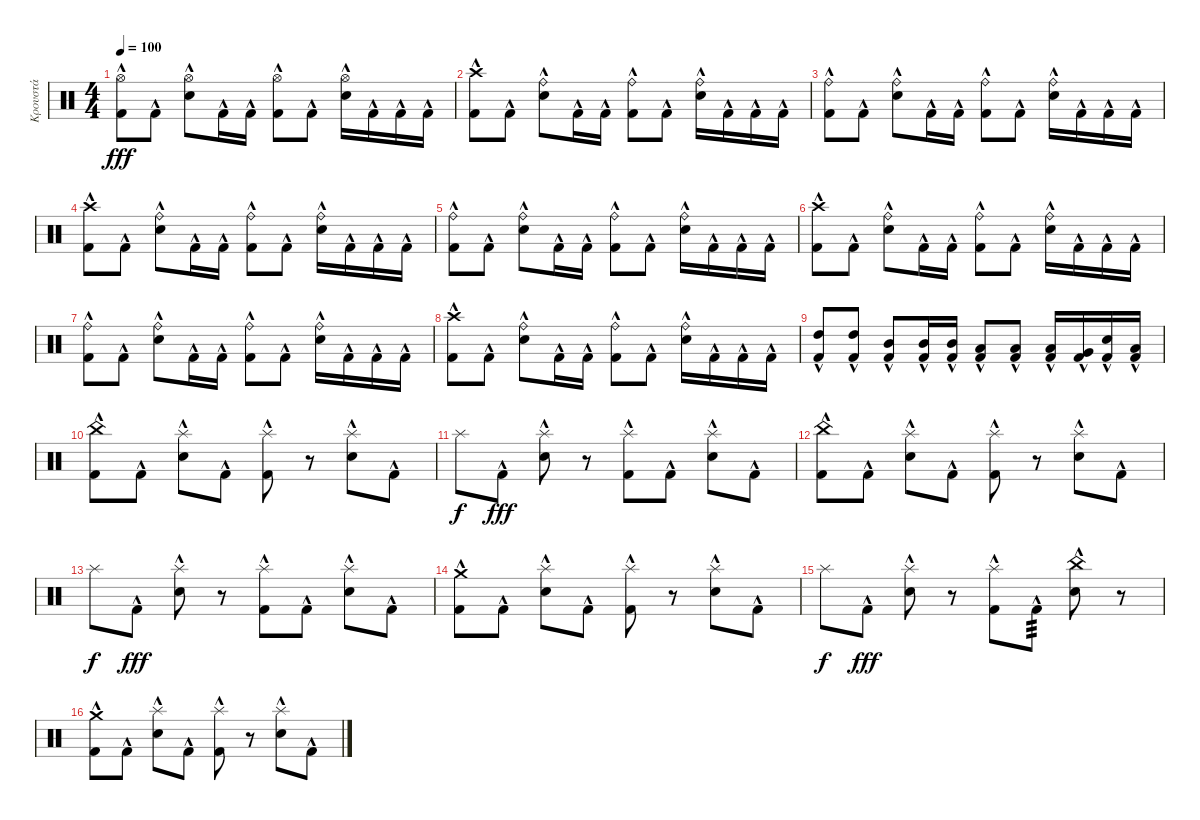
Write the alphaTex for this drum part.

\track ("Κρουστά" "Κρουστά") {instrument percussion}
\staff {score}
\articulation defaults
\ts (4 4)
\tempo 100
\clef neutral
\ks c
("Kick (hit) 2"{hac} "Hi-Hat (open)").8{dy fff} "Kick (hit) 2"{hac}.8 ("Electric Snare (hit)"{hac} "Hi-Hat (open)").8 "Kick (hit) 2"{hac}.16 "Kick (hit) 2"{hac}.16 ("Kick (hit) 2"{hac} "Hi-Hat (open)").8 "Kick (hit) 2"{hac}.8 ("Electric Snare (hit)"{hac} "Hi-Hat (open)").16 "Kick (hit) 2"{hac}.16 "Kick (hit) 2"{hac}.16 "Kick (hit) 2"{hac}.16 |
("Kick (hit) 2"{hac} "Crash high (hit)").8 "Kick (hit) 2"{hac}.8 ("Electric Snare (hit)"{hac} "Ride (bell)").8 "Kick (hit) 2"{hac}.16 "Kick (hit) 2"{hac}.16 ("Kick (hit) 2"{hac} "Ride (bell)").8 "Kick (hit) 2"{hac}.8 ("Electric Snare (hit)"{hac} "Ride (bell)").16 "Kick (hit) 2"{hac}.16 "Kick (hit) 2"{hac}.16 "Kick (hit) 2"{hac}.16 |
("Kick (hit) 2"{hac} "Ride (bell)").8 "Kick (hit) 2"{hac}.8 ("Electric Snare (hit)"{hac} "Ride (bell)").8 "Kick (hit) 2"{hac}.16 "Kick (hit) 2"{hac}.16 ("Kick (hit) 2"{hac} "Ride (bell)").8 "Kick (hit) 2"{hac}.8 ("Electric Snare (hit)"{hac} "Ride (bell)").16 "Kick (hit) 2"{hac}.16 "Kick (hit) 2"{hac}.16 "Kick (hit) 2"{hac}.16 |
("Kick (hit) 2"{hac} "Crash high (hit)").8 "Kick (hit) 2"{hac}.8 ("Electric Snare (hit)"{hac} "Ride (bell)").8 "Kick (hit) 2"{hac}.16 "Kick (hit) 2"{hac}.16 ("Kick (hit) 2"{hac} "Ride (bell)").8 "Kick (hit) 2"{hac}.8 ("Electric Snare (hit)"{hac} "Ride (bell)").16 "Kick (hit) 2"{hac}.16 "Kick (hit) 2"{hac}.16 "Kick (hit) 2"{hac}.16 |
("Kick (hit) 2"{hac} "Ride (bell)").8 "Kick (hit) 2"{hac}.8 ("Electric Snare (hit)"{hac} "Ride (bell)").8 "Kick (hit) 2"{hac}.16 "Kick (hit) 2"{hac}.16 ("Kick (hit) 2"{hac} "Ride (bell)").8 "Kick (hit) 2"{hac}.8 ("Electric Snare (hit)"{hac} "Ride (bell)").16 "Kick (hit) 2"{hac}.16 "Kick (hit) 2"{hac}.16 "Kick (hit) 2"{hac}.16 |
("Kick (hit) 2"{hac} "Crash high (hit)").8 "Kick (hit) 2"{hac}.8 ("Electric Snare (hit)"{hac} "Ride (bell)").8 "Kick (hit) 2"{hac}.16 "Kick (hit) 2"{hac}.16 ("Kick (hit) 2"{hac} "Ride (bell)").8 "Kick (hit) 2"{hac}.8 ("Electric Snare (hit)"{hac} "Ride (bell)").16 "Kick (hit) 2"{hac}.16 "Kick (hit) 2"{hac}.16 "Kick (hit) 2"{hac}.16 |
("Kick (hit) 2"{hac} "Ride (bell)").8 "Kick (hit) 2"{hac}.8 ("Electric Snare (hit)"{hac} "Ride (bell)").8 "Kick (hit) 2"{hac}.16 "Kick (hit) 2"{hac}.16 ("Kick (hit) 2"{hac} "Ride (bell)").8 "Kick (hit) 2"{hac}.8 ("Electric Snare (hit)"{hac} "Ride (bell)").16 "Kick (hit) 2"{hac}.16 "Kick (hit) 2"{hac}.16 "Kick (hit) 2"{hac}.16 |
("Kick (hit) 2"{hac} "Crash high (hit)").8 "Kick (hit) 2"{hac}.8 ("Electric Snare (hit)"{hac} "Ride (bell)").8 "Kick (hit) 2"{hac}.16 "Kick (hit) 2"{hac}.16 ("Kick (hit) 2"{hac} "Ride (bell)").8 "Kick (hit) 2"{hac}.8 ("Electric Snare (hit)"{hac} "Ride (bell)").16 "Kick (hit) 2"{hac}.16 "Kick (hit) 2"{hac}.16 "Kick (hit) 2"{hac}.16 |
("Kick (hit) 2"{hac} "High Tom (hit)").8 ("Kick (hit) 2"{hac} "High Tom (hit)").8 ("Kick (hit) 2"{hac} "Mid Tom (hit)").8 ("Kick (hit) 2"{hac} "Mid Tom (hit)").16 ("Kick (hit) 2"{hac} "Mid Tom (hit)").16 ("Kick (hit) 2"{hac} "Low Tom (hit)").8 ("Kick (hit) 2"{hac} "Low Tom (hit)").8 ("Kick (hit) 2"{hac} "Low Tom (hit)").16 ("Kick (hit) 2"{hac} "Very Low Tom (hit)").16 ("Kick (hit) 2"{hac} "Snare (hit)").16 ("Kick (hit) 2"{hac} "Low Floor Tom (hit)").16 |
("Kick (hit) 2"{hac} "China (hit)").8 "Kick (hit) 2"{hac}.8 ("Electric Snare (hit)"{hac} "Splash (hit)").8 "Kick (hit) 2"{hac}.8 ("Kick (hit) 2"{hac} "Splash (hit)").8 r.8 ("Electric Snare (hit)"{hac} "Splash (hit)").8 "Kick (hit) 2"{hac}.8 |
"Splash (hit)".8{dy f} "Kick (hit) 2"{hac}.8{dy fff} ("Splash (hit)" "Electric Snare (hit)"{hac}).8 r.8 ("Splash (hit)" "Kick (hit) 2"{hac}).8 "Kick (hit) 2"{hac}.8 ("Splash (hit)" "Electric Snare (hit)"{hac}).8 "Kick (hit) 2"{hac}.8 |
("Kick (hit) 2"{hac} "China (hit)").8 "Kick (hit) 2"{hac}.8 ("Electric Snare (hit)"{hac} "Splash (hit)").8 "Kick (hit) 2"{hac}.8 ("Kick (hit) 2"{hac} "Splash (hit)").8 r.8 ("Electric Snare (hit)"{hac} "Splash (hit)").8 "Kick (hit) 2"{hac}.8 |
"Splash (hit)".8{dy f} "Kick (hit) 2"{hac}.8{dy fff} ("Splash (hit)" "Electric Snare (hit)"{hac}).8 r.8 ("Splash (hit)" "Kick (hit) 2"{hac}).8 "Kick (hit) 2"{hac}.8 ("Splash (hit)" "Electric Snare (hit)"{hac}).8 "Kick (hit) 2"{hac}.8 |
("Kick (hit) 2"{hac} "Crash medium (hit)").8 "Kick (hit) 2"{hac}.8 ("Electric Snare (hit)"{hac} "Splash (hit)").8 "Kick (hit) 2"{hac}.8 ("Kick (hit) 2"{hac} "Splash (hit)").8 r.8 ("Electric Snare (hit)"{hac} "Splash (hit)").8 "Kick (hit) 2"{hac}.8 |
"Splash (hit)".8{dy f} "Kick (hit) 2"{hac}.8{dy fff} ("Splash (hit)" "Electric Snare (hit)"{hac}).8 r.8 ("Splash (hit)" "Kick (hit) 2"{hac}).8 "Kick (hit) 2"{hac}.8{tp 3} ("China (hit)" "Electric Snare (hit)"{hac}).8 r.8 |
("Kick (hit) 2"{hac} "Crash medium (hit)").8 "Kick (hit) 2"{hac}.8 ("Electric Snare (hit)"{hac} "Splash (hit)").8 "Kick (hit) 2"{hac}.8 ("Kick (hit) 2"{hac} "Splash (hit)").8 r.8 ("Electric Snare (hit)"{hac} "Splash (hit)").8 "Kick (hit) 2"{hac}.8
